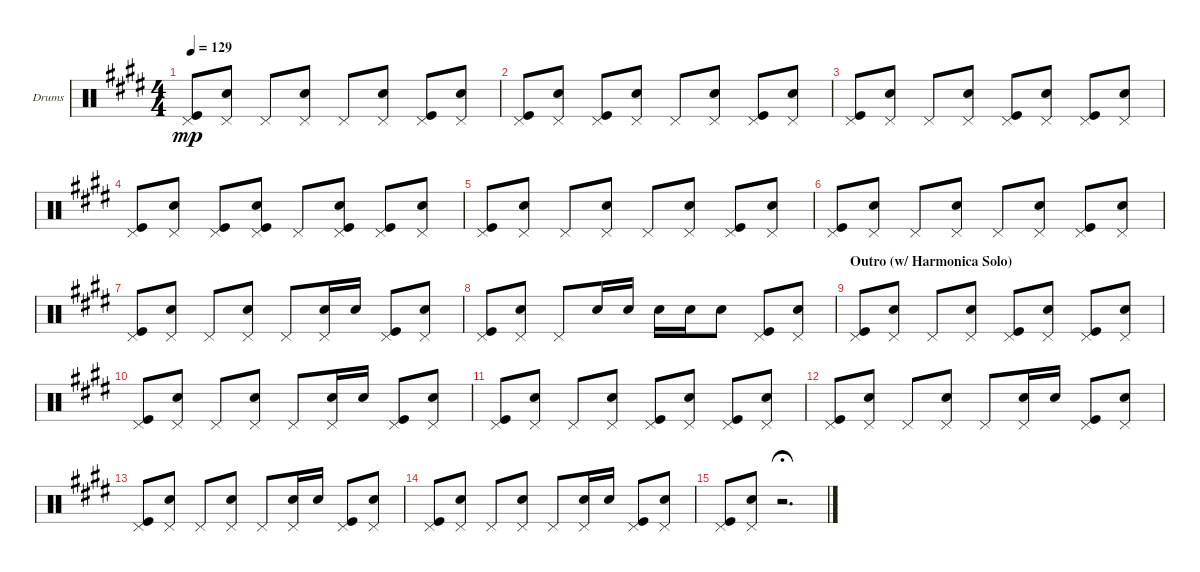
\defaultSystemsLayout 4
\bracketExtendMode groupsimilarinstruments
\firstSystemTrackNameOrientation horizontal
\otherSystemsTrackNameOrientation horizontal
\chordDiagramsInScore
\track ("Drumkit" "Drums") {instrument percussion}
\staff {score}
\articulation defaults
\ts (4 4)
\tempo 129
\clef neutral
\ks c#minor
("Kick (hit)" "Pedal Hi-Hat (hit)").8{dy mp} ("Pedal Hi-Hat (hit)" "Snare (hit) 2").8 "Pedal Hi-Hat (hit)".8 ("Pedal Hi-Hat (hit)" "Snare (hit) 2").8 "Pedal Hi-Hat (hit)".8 ("Pedal Hi-Hat (hit)" "Snare (hit) 2").8 ("Pedal Hi-Hat (hit)" "Kick (hit)").8 ("Pedal Hi-Hat (hit)" "Snare (hit) 2").8 |
("Kick (hit)" "Pedal Hi-Hat (hit)").8 ("Pedal Hi-Hat (hit)" "Snare (hit) 2").8 ("Pedal Hi-Hat (hit)" "Kick (hit)").8 ("Pedal Hi-Hat (hit)" "Snare (hit) 2").8 "Pedal Hi-Hat (hit)".8 ("Pedal Hi-Hat (hit)" "Snare (hit) 2").8 ("Pedal Hi-Hat (hit)" "Kick (hit)").8 ("Pedal Hi-Hat (hit)" "Snare (hit) 2").8 |
("Kick (hit)" "Pedal Hi-Hat (hit)").8 ("Pedal Hi-Hat (hit)" "Snare (hit) 2").8 "Pedal Hi-Hat (hit)".8 ("Pedal Hi-Hat (hit)" "Snare (hit) 2").8 ("Pedal Hi-Hat (hit)" "Kick (hit)").8 ("Pedal Hi-Hat (hit)" "Snare (hit) 2").8 ("Pedal Hi-Hat (hit)" "Kick (hit)").8 ("Pedal Hi-Hat (hit)" "Snare (hit) 2").8 |
("Kick (hit)" "Pedal Hi-Hat (hit)").8 ("Pedal Hi-Hat (hit)" "Snare (hit) 2").8 ("Pedal Hi-Hat (hit)" "Kick (hit)").8 ("Pedal Hi-Hat (hit)" "Snare (hit) 2" "Kick (hit)").8 "Pedal Hi-Hat (hit)".8 ("Pedal Hi-Hat (hit)" "Snare (hit) 2" "Kick (hit)").8 ("Pedal Hi-Hat (hit)" "Kick (hit)").8 ("Pedal Hi-Hat (hit)" "Snare (hit) 2").8 |
("Kick (hit)" "Pedal Hi-Hat (hit)").8 ("Pedal Hi-Hat (hit)" "Snare (hit) 2").8 "Pedal Hi-Hat (hit)".8 ("Pedal Hi-Hat (hit)" "Snare (hit) 2").8 "Pedal Hi-Hat (hit)".8 ("Pedal Hi-Hat (hit)" "Snare (hit) 2").8 ("Pedal Hi-Hat (hit)" "Kick (hit)").8 ("Pedal Hi-Hat (hit)" "Snare (hit) 2").8 |
("Kick (hit)" "Pedal Hi-Hat (hit)").8 ("Pedal Hi-Hat (hit)" "Snare (hit) 2").8 "Pedal Hi-Hat (hit)".8 ("Pedal Hi-Hat (hit)" "Snare (hit) 2").8 "Pedal Hi-Hat (hit)".8 ("Pedal Hi-Hat (hit)" "Snare (hit) 2").8 ("Pedal Hi-Hat (hit)" "Kick (hit)").8 ("Pedal Hi-Hat (hit)" "Snare (hit) 2").8 |
("Kick (hit)" "Pedal Hi-Hat (hit)").8 ("Pedal Hi-Hat (hit)" "Snare (hit) 2").8 "Pedal Hi-Hat (hit)".8 ("Pedal Hi-Hat (hit)" "Snare (hit) 2").8 "Pedal Hi-Hat (hit)".8 ("Pedal Hi-Hat (hit)" "Snare (hit) 2").16 "Snare (hit) 2".16 ("Pedal Hi-Hat (hit)" "Kick (hit)").8 ("Pedal Hi-Hat (hit)" "Snare (hit) 2").8 |
("Kick (hit)" "Pedal Hi-Hat (hit)").8 ("Pedal Hi-Hat (hit)" "Snare (hit) 2").8 "Pedal Hi-Hat (hit)".8 "Snare (hit) 2".16 "Snare (hit) 2".16 "Snare (hit) 2".16 "Snare (hit) 2".16 "Snare (hit) 2".8 ("Kick (hit)" "Pedal Hi-Hat (hit)").8 ("Snare (hit) 2" "Pedal Hi-Hat (hit)").8 |
\section ("" "Outro (w/ Harmonica Solo)")
("Kick (hit)" "Pedal Hi-Hat (hit)").8 ("Pedal Hi-Hat (hit)" "Snare (hit) 2").8 "Pedal Hi-Hat (hit)".8 ("Pedal Hi-Hat (hit)" "Snare (hit) 2").8 ("Pedal Hi-Hat (hit)" "Kick (hit)").8 ("Pedal Hi-Hat (hit)" "Snare (hit) 2").8 ("Pedal Hi-Hat (hit)" "Kick (hit)").8 ("Pedal Hi-Hat (hit)" "Snare (hit) 2").8 |
("Kick (hit)" "Pedal Hi-Hat (hit)").8 ("Pedal Hi-Hat (hit)" "Snare (hit) 2").8 "Pedal Hi-Hat (hit)".8 ("Pedal Hi-Hat (hit)" "Snare (hit) 2").8 "Pedal Hi-Hat (hit)".8 ("Pedal Hi-Hat (hit)" "Snare (hit) 2").16 "Snare (hit) 2".16 ("Pedal Hi-Hat (hit)" "Kick (hit)").8 ("Pedal Hi-Hat (hit)" "Snare (hit) 2").8 |
("Kick (hit)" "Pedal Hi-Hat (hit)").8 ("Pedal Hi-Hat (hit)" "Snare (hit) 2").8 "Pedal Hi-Hat (hit)".8 ("Pedal Hi-Hat (hit)" "Snare (hit) 2").8 ("Pedal Hi-Hat (hit)" "Kick (hit)").8 ("Pedal Hi-Hat (hit)" "Snare (hit) 2").8 ("Pedal Hi-Hat (hit)" "Kick (hit)").8 ("Pedal Hi-Hat (hit)" "Snare (hit) 2").8 |
("Kick (hit)" "Pedal Hi-Hat (hit)").8 ("Pedal Hi-Hat (hit)" "Snare (hit) 2").8 "Pedal Hi-Hat (hit)".8 ("Pedal Hi-Hat (hit)" "Snare (hit) 2").8 "Pedal Hi-Hat (hit)".8 ("Pedal Hi-Hat (hit)" "Snare (hit) 2").16 "Snare (hit) 2".16 ("Pedal Hi-Hat (hit)" "Kick (hit)").8 ("Pedal Hi-Hat (hit)" "Snare (hit) 2").8 |
("Kick (hit)" "Pedal Hi-Hat (hit)").8 ("Pedal Hi-Hat (hit)" "Snare (hit) 2").8 "Pedal Hi-Hat (hit)".8 ("Pedal Hi-Hat (hit)" "Snare (hit) 2").8 "Pedal Hi-Hat (hit)".8 ("Pedal Hi-Hat (hit)" "Snare (hit) 2").16 "Snare (hit) 2".16 ("Pedal Hi-Hat (hit)" "Kick (hit)").8 ("Pedal Hi-Hat (hit)" "Snare (hit) 2").8 |
("Kick (hit)" "Pedal Hi-Hat (hit)").8 ("Pedal Hi-Hat (hit)" "Snare (hit) 2").8 "Pedal Hi-Hat (hit)".8 ("Pedal Hi-Hat (hit)" "Snare (hit) 2").8 "Pedal Hi-Hat (hit)".8 ("Pedal Hi-Hat (hit)" "Snare (hit) 2").16 "Snare (hit) 2".16 ("Pedal Hi-Hat (hit)" "Kick (hit)").8 ("Pedal Hi-Hat (hit)" "Snare (hit) 2").8 |
("Kick (hit)" "Pedal Hi-Hat (hit)").8 ("Pedal Hi-Hat (hit)" "Snare (hit) 2").8 r.2{d fermata (medium 0.73)}
